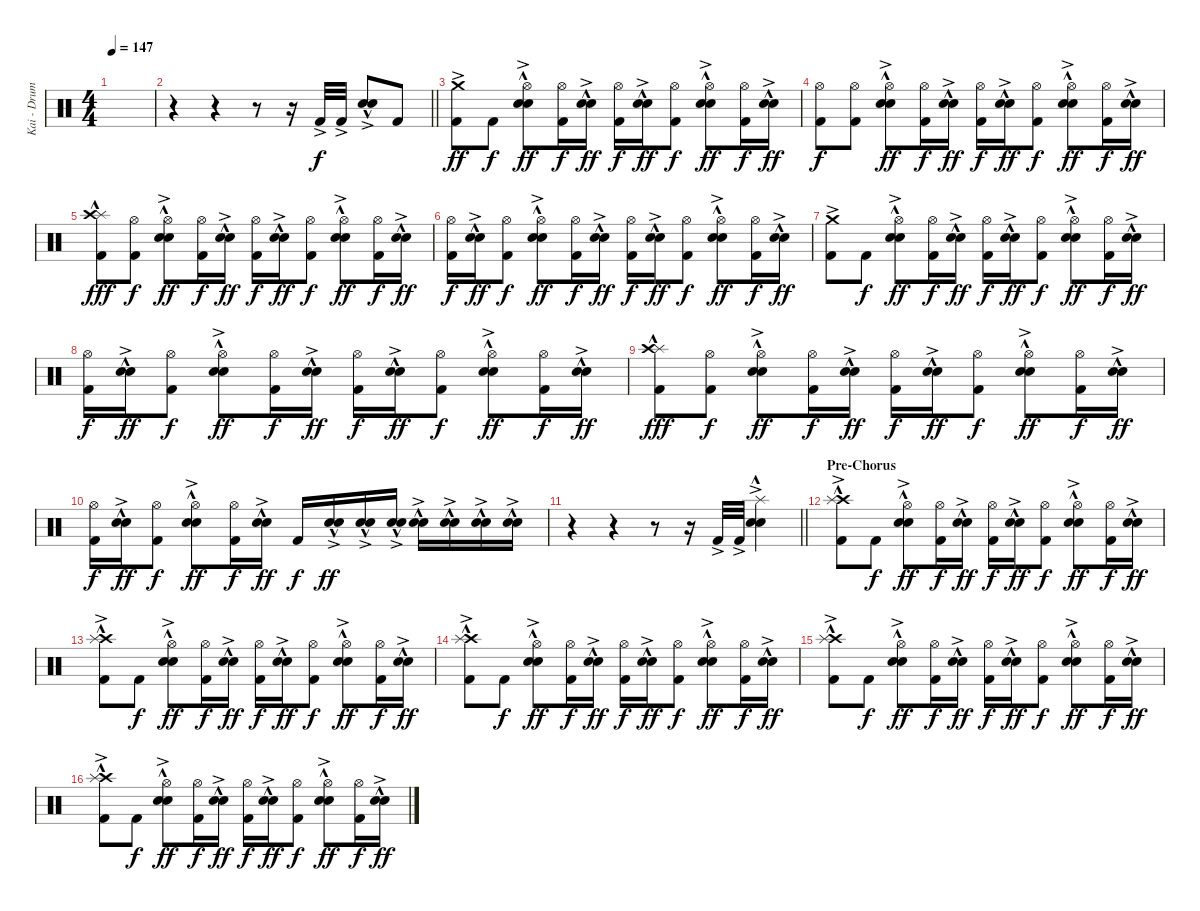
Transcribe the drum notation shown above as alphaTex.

\track ("Kai - Drums" "Kai - Drum") {instrument percussion}
\staff {score}
\articulation defaults
\ts (4 4)
\tempo 147
\clef neutral
\ks c
|
\barLineRight lightlight
r.4 r.4 r.8 r.16 "Kick (hit) 2"{ac}.32 "Kick (hit) 2"{ac}.32 ("Electric Snare (hit)"{hac} "Snare (hit) 2"{ac}).8 "Kick (hit) 2".8{dy f} |
\section ("" "")
("Crash medium (hit)"{ac} "Kick (hit) 2").8{dy ff} "Kick (hit) 2".8{dy f} ("Hi-Hat (open)" "Electric Snare (hit)"{hac} "Snare (hit) 2"{ac}).8{dy ff} ("Hi-Hat (open)" "Kick (hit) 2").16{dy f} ("Electric Snare (hit)"{hac} "Snare (hit) 2"{ac}).16{dy ff} ("Hi-Hat (open)" "Kick (hit) 2").16{dy f} ("Electric Snare (hit)"{hac} "Snare (hit) 2"{ac}).16{dy ff} ("Hi-Hat (open)" "Kick (hit) 2").8{dy f} ("Hi-Hat (open)" "Electric Snare (hit)"{hac} "Snare (hit) 2"{ac}).8{dy ff} ("Hi-Hat (open)" "Kick (hit) 2").16{dy f} ("Electric Snare (hit)"{hac} "Snare (hit) 2"{ac}).16{dy ff} |
("Hi-Hat (open)" "Kick (hit) 2").8{dy f} ("Hi-Hat (open)" "Kick (hit) 2").8 ("Hi-Hat (open)" "Electric Snare (hit)"{hac} "Snare (hit) 2"{ac}).8{dy ff} ("Hi-Hat (open)" "Kick (hit) 2").16{dy f} ("Electric Snare (hit)"{hac} "Snare (hit) 2"{ac}).16{dy ff} ("Hi-Hat (open)" "Kick (hit) 2").16{dy f} ("Electric Snare (hit)"{hac} "Snare (hit) 2"{ac}).16{dy ff} ("Hi-Hat (open)" "Kick (hit) 2").8{dy f} ("Hi-Hat (open)" "Electric Snare (hit)"{hac} "Snare (hit) 2"{ac}).8{dy ff} ("Hi-Hat (open)" "Kick (hit) 2").16{dy f} ("Electric Snare (hit)"{hac} "Snare (hit) 2"{ac}).16{dy ff} |
("Splash (hit)"{hac} "Crash high (hit)" "Kick (hit) 2").8{dy fff} ("Hi-Hat (open)" "Kick (hit) 2").8{dy f} ("Hi-Hat (open)" "Electric Snare (hit)"{hac} "Snare (hit) 2"{ac}).8{dy ff} ("Hi-Hat (open)" "Kick (hit) 2").16{dy f} ("Electric Snare (hit)"{hac} "Snare (hit) 2"{ac}).16{dy ff} ("Hi-Hat (open)" "Kick (hit) 2").16{dy f} ("Electric Snare (hit)"{hac} "Snare (hit) 2"{ac}).16{dy ff} ("Hi-Hat (open)" "Kick (hit) 2").8{dy f} ("Hi-Hat (open)" "Electric Snare (hit)"{hac} "Snare (hit) 2"{ac}).8{dy ff} ("Hi-Hat (open)" "Kick (hit) 2").16{dy f} ("Electric Snare (hit)"{hac} "Snare (hit) 2"{ac}).16{dy ff} |
("Hi-Hat (open)" "Kick (hit) 2").16{dy f} ("Electric Snare (hit)"{hac} "Snare (hit) 2"{ac}).16{dy ff} ("Hi-Hat (open)" "Kick (hit) 2").8{dy f} ("Hi-Hat (open)" "Electric Snare (hit)"{hac} "Snare (hit) 2"{ac}).8{dy ff} ("Hi-Hat (open)" "Kick (hit) 2").16{dy f} ("Electric Snare (hit)"{hac} "Snare (hit) 2"{ac}).16{dy ff} ("Hi-Hat (open)" "Kick (hit) 2").16{dy f} ("Electric Snare (hit)"{hac} "Snare (hit) 2"{ac}).16{dy ff} ("Hi-Hat (open)" "Kick (hit) 2").8{dy f} ("Hi-Hat (open)" "Electric Snare (hit)"{hac} "Snare (hit) 2"{ac}).8{dy ff} ("Hi-Hat (open)" "Kick (hit) 2").16{dy f} ("Electric Snare (hit)"{hac} "Snare (hit) 2"{ac}).16{dy ff} |
("Crash medium (hit)"{ac} "Kick (hit) 2").8 "Kick (hit) 2".8{dy f} ("Hi-Hat (open)" "Electric Snare (hit)"{hac} "Snare (hit) 2"{ac}).8{dy ff} ("Hi-Hat (open)" "Kick (hit) 2").16{dy f} ("Electric Snare (hit)"{hac} "Snare (hit) 2"{ac}).16{dy ff} ("Hi-Hat (open)" "Kick (hit) 2").16{dy f} ("Electric Snare (hit)"{hac} "Snare (hit) 2"{ac}).16{dy ff} ("Hi-Hat (open)" "Kick (hit) 2").8{dy f} ("Hi-Hat (open)" "Electric Snare (hit)"{hac} "Snare (hit) 2"{ac}).8{dy ff} ("Hi-Hat (open)" "Kick (hit) 2").16{dy f} ("Electric Snare (hit)"{hac} "Snare (hit) 2"{ac}).16{dy ff} |
("Hi-Hat (open)" "Kick (hit) 2").16{dy f} ("Electric Snare (hit)"{hac} "Snare (hit) 2"{ac}).16{dy ff} ("Hi-Hat (open)" "Kick (hit) 2").8{dy f} ("Hi-Hat (open)" "Electric Snare (hit)"{hac} "Snare (hit) 2"{ac}).8{dy ff} ("Hi-Hat (open)" "Kick (hit) 2").16{dy f} ("Electric Snare (hit)"{hac} "Snare (hit) 2"{ac}).16{dy ff} ("Hi-Hat (open)" "Kick (hit) 2").16{dy f} ("Electric Snare (hit)"{hac} "Snare (hit) 2"{ac}).16{dy ff} ("Hi-Hat (open)" "Kick (hit) 2").8{dy f} ("Hi-Hat (open)" "Electric Snare (hit)"{hac} "Snare (hit) 2"{ac}).8{dy ff} ("Hi-Hat (open)" "Kick (hit) 2").16{dy f} ("Electric Snare (hit)"{hac} "Snare (hit) 2"{ac}).16{dy ff} |
("Splash (hit)"{hac} "Crash high (hit)" "Kick (hit) 2").8{dy fff} ("Hi-Hat (open)" "Kick (hit) 2").8{dy f} ("Hi-Hat (open)" "Electric Snare (hit)"{hac} "Snare (hit) 2"{ac}).8{dy ff} ("Hi-Hat (open)" "Kick (hit) 2").16{dy f} ("Electric Snare (hit)"{hac} "Snare (hit) 2"{ac}).16{dy ff} ("Hi-Hat (open)" "Kick (hit) 2").16{dy f} ("Electric Snare (hit)"{hac} "Snare (hit) 2"{ac}).16{dy ff} ("Hi-Hat (open)" "Kick (hit) 2").8{dy f} ("Hi-Hat (open)" "Electric Snare (hit)"{hac} "Snare (hit) 2"{ac}).8{dy ff} ("Hi-Hat (open)" "Kick (hit) 2").16{dy f} ("Electric Snare (hit)"{hac} "Snare (hit) 2"{ac}).16{dy ff} |
("Hi-Hat (open)" "Kick (hit) 2").16{dy f} ("Electric Snare (hit)"{hac} "Snare (hit) 2"{ac}).16{dy ff} ("Hi-Hat (open)" "Kick (hit) 2").8{dy f} ("Hi-Hat (open)" "Electric Snare (hit)"{hac} "Snare (hit) 2"{ac}).8{dy ff} ("Hi-Hat (open)" "Kick (hit) 2").16{dy f} ("Electric Snare (hit)"{hac} "Snare (hit) 2"{ac}).16{dy ff} "Kick (hit) 2".16{dy f} ("Electric Snare (hit)"{hac} "Snare (hit) 2"{ac}).16{dy ff} ("Electric Snare (hit)"{hac} "Snare (hit) 2"{ac}).16 ("Electric Snare (hit)"{hac} "Snare (hit) 2"{ac}).16 ("Electric Snare (hit)"{hac} "Snare (hit) 2"{ac}).16 ("Electric Snare (hit)"{hac} "Snare (hit) 2"{ac}).16 ("Electric Snare (hit)"{hac} "Snare (hit) 2"{ac}).16 ("Electric Snare (hit)"{hac} "Snare (hit) 2"{ac}).16 |
\barLineRight lightlight
r.4 r.4 r.8 r.16 "Kick (hit) 2"{ac}.32 "Kick (hit) 2"{ac}.32 ("Splash (hit)"{ac} "Electric Snare (hit)"{hac} "Snare (hit) 2"{ac}).4 |
\section ("" "Pre-Chorus")
("Crash high (hit)"{hac} "Splash (hit)"{ac} "Kick (hit) 2").8 "Kick (hit) 2".8{dy f} ("Hi-Hat (open)" "Electric Snare (hit)"{hac} "Snare (hit) 2"{ac}).8{dy ff} ("Hi-Hat (open)" "Kick (hit) 2").16{dy f} ("Electric Snare (hit)"{hac} "Snare (hit) 2"{ac}).16{dy ff} ("Hi-Hat (open)" "Kick (hit) 2").16{dy f} ("Electric Snare (hit)"{hac} "Snare (hit) 2"{ac}).16{dy ff} ("Hi-Hat (open)" "Kick (hit) 2").8{dy f} ("Hi-Hat (open)" "Electric Snare (hit)"{hac} "Snare (hit) 2"{ac}).8{dy ff} ("Hi-Hat (open)" "Kick (hit) 2").16{dy f} ("Electric Snare (hit)"{hac} "Snare (hit) 2"{ac}).16{dy ff} |
("Crash high (hit)"{hac} "Splash (hit)"{ac} "Kick (hit) 2").8 "Kick (hit) 2".8{dy f} ("Hi-Hat (open)" "Electric Snare (hit)"{hac} "Snare (hit) 2"{ac}).8{dy ff} ("Hi-Hat (open)" "Kick (hit) 2").16{dy f} ("Electric Snare (hit)"{hac} "Snare (hit) 2"{ac}).16{dy ff} ("Hi-Hat (open)" "Kick (hit) 2").16{dy f} ("Electric Snare (hit)"{hac} "Snare (hit) 2"{ac}).16{dy ff} ("Hi-Hat (open)" "Kick (hit) 2").8{dy f} ("Hi-Hat (open)" "Electric Snare (hit)"{hac} "Snare (hit) 2"{ac}).8{dy ff} ("Hi-Hat (open)" "Kick (hit) 2").16{dy f} ("Electric Snare (hit)"{hac} "Snare (hit) 2"{ac}).16{dy ff} |
("Crash high (hit)"{hac} "Splash (hit)"{ac} "Kick (hit) 2").8 "Kick (hit) 2".8{dy f} ("Hi-Hat (open)" "Electric Snare (hit)"{hac} "Snare (hit) 2"{ac}).8{dy ff} ("Hi-Hat (open)" "Kick (hit) 2").16{dy f} ("Electric Snare (hit)"{hac} "Snare (hit) 2"{ac}).16{dy ff} ("Hi-Hat (open)" "Kick (hit) 2").16{dy f} ("Electric Snare (hit)"{hac} "Snare (hit) 2"{ac}).16{dy ff} ("Hi-Hat (open)" "Kick (hit) 2").8{dy f} ("Hi-Hat (open)" "Electric Snare (hit)"{hac} "Snare (hit) 2"{ac}).8{dy ff} ("Hi-Hat (open)" "Kick (hit) 2").16{dy f} ("Electric Snare (hit)"{hac} "Snare (hit) 2"{ac}).16{dy ff} |
("Crash high (hit)"{hac} "Splash (hit)"{ac} "Kick (hit) 2").8 "Kick (hit) 2".8{dy f} ("Hi-Hat (open)" "Electric Snare (hit)"{hac} "Snare (hit) 2"{ac}).8{dy ff} ("Hi-Hat (open)" "Kick (hit) 2").16{dy f} ("Electric Snare (hit)"{hac} "Snare (hit) 2"{ac}).16{dy ff} ("Hi-Hat (open)" "Kick (hit) 2").16{dy f} ("Electric Snare (hit)"{hac} "Snare (hit) 2"{ac}).16{dy ff} ("Hi-Hat (open)" "Kick (hit) 2").8{dy f} ("Hi-Hat (open)" "Electric Snare (hit)"{hac} "Snare (hit) 2"{ac}).8{dy ff} ("Hi-Hat (open)" "Kick (hit) 2").16{dy f} ("Electric Snare (hit)"{hac} "Snare (hit) 2"{ac}).16{dy ff} |
("Crash high (hit)"{hac} "Splash (hit)"{ac} "Kick (hit) 2").8 "Kick (hit) 2".8{dy f} ("Hi-Hat (open)" "Electric Snare (hit)"{hac} "Snare (hit) 2"{ac}).8{dy ff} ("Hi-Hat (open)" "Kick (hit) 2").16{dy f} ("Electric Snare (hit)"{hac} "Snare (hit) 2"{ac}).16{dy ff} ("Hi-Hat (open)" "Kick (hit) 2").16{dy f} ("Electric Snare (hit)"{hac} "Snare (hit) 2"{ac}).16{dy ff} ("Hi-Hat (open)" "Kick (hit) 2").8{dy f} ("Hi-Hat (open)" "Electric Snare (hit)"{hac} "Snare (hit) 2"{ac}).8{dy ff} ("Hi-Hat (open)" "Kick (hit) 2").16{dy f} ("Electric Snare (hit)"{hac} "Snare (hit) 2"{ac}).16{dy ff}
